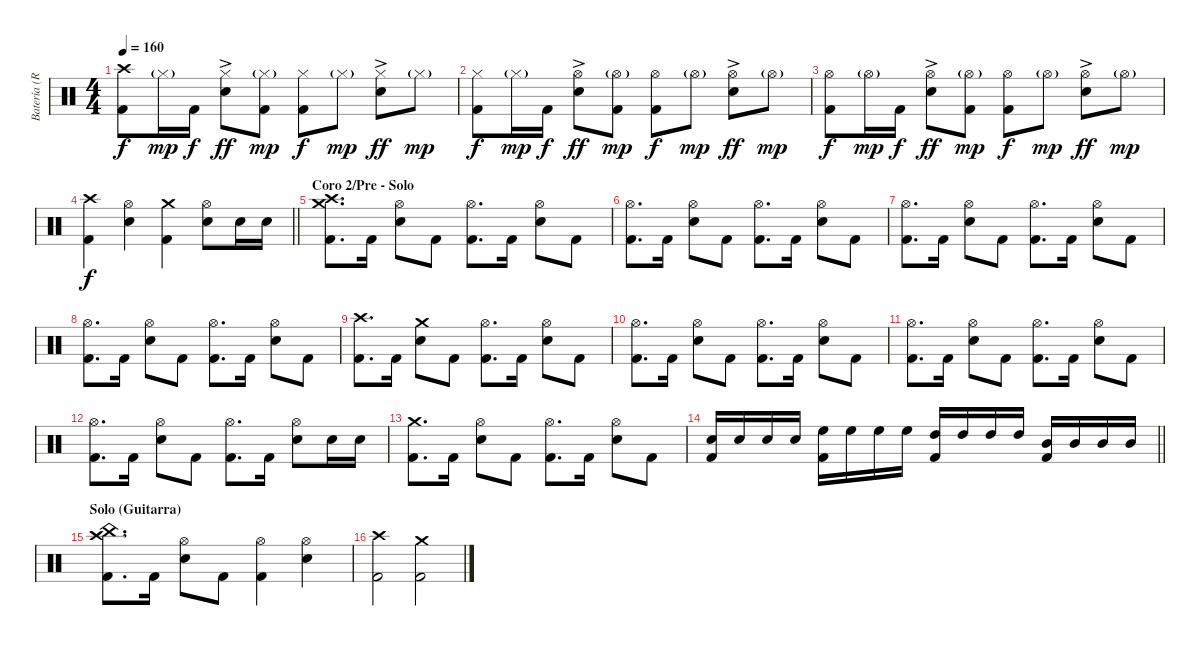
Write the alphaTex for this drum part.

\track ("Batería (Robert)" "Batería (R") {instrument percussion}
\staff {score}
\articulation defaults
\ts (4 4)
\tempo 160
\clef neutral
\ks c
("Crash high (hit)" "Kick (hit) 2").8{dy f} "Hi-Hat (closed)"{g}.16{dy mp} "Kick (hit) 2".16{dy f} ("Hi-Hat (closed)"{ac} "Electric Snare (hit)").8{dy ff} ("Hi-Hat (closed)"{g} "Kick (hit) 2").8{dy mp} ("Hi-Hat (closed)" "Kick (hit) 2").8{dy f} "Hi-Hat (closed)"{g}.8{dy mp} ("Hi-Hat (closed)"{ac} "Electric Snare (hit)").8{dy ff} "Hi-Hat (closed)"{g}.8{dy mp} |
("Hi-Hat (closed)" "Kick (hit) 2").8{dy f} "Hi-Hat (closed)"{g}.16{dy mp} "Kick (hit) 2".16{dy f} ("Electric Snare (hit)" "Hi-Hat (open)"{ac}).8{dy ff} ("Hi-Hat (open)"{g} "Kick (hit) 2").8{dy mp} ("Hi-Hat (open)" "Kick (hit) 2").8{dy f} "Hi-Hat (open)"{g}.8{dy mp} ("Hi-Hat (open)"{ac} "Electric Snare (hit)").8{dy ff} "Hi-Hat (open)"{g}.8{dy mp} |
("Hi-Hat (open)" "Kick (hit) 2").8{dy f} "Hi-Hat (open)"{g}.16{dy mp} "Kick (hit) 2".16{dy f} ("Hi-Hat (open)"{ac} "Electric Snare (hit)").8{dy ff} ("Hi-Hat (open)"{g} "Kick (hit) 2").8{dy mp} ("Hi-Hat (open)" "Kick (hit) 2").8{dy f} "Hi-Hat (open)"{g}.8{dy mp} ("Hi-Hat (open)"{ac} "Electric Snare (hit)").8{dy ff} "Hi-Hat (open)"{g}.8{dy mp} |
\barLineRight lightlight
("Kick (hit) 2" "Crash high (hit)").4{dy f} ("Electric Snare (hit)" "Hi-Hat (open)").4 ("Kick (hit) 2" "Crash medium (hit)").4 ("Hi-Hat (open)" "Electric Snare (hit)").8 "Electric Snare (hit)".16 "Electric Snare (hit)".16 |
\section ("" "Coro 2/Pre - Solo")
("Crash high (hit)" "Crash medium (hit)" "Kick (hit) 2").8{d} "Kick (hit) 2".16 ("Hi-Hat (open)" "Electric Snare (hit)").8 "Kick (hit) 2".8 ("Kick (hit) 2" "Hi-Hat (open)").8{d} "Kick (hit) 2".16 ("Hi-Hat (open)" "Electric Snare (hit)").8 "Kick (hit) 2".8 |
("Hi-Hat (open)" "Kick (hit) 2").8{d} "Kick (hit) 2".16 ("Hi-Hat (open)" "Electric Snare (hit)").8 "Kick (hit) 2".8 ("Kick (hit) 2" "Hi-Hat (open)").8{d} "Kick (hit) 2".16 ("Hi-Hat (open)" "Electric Snare (hit)").8 "Kick (hit) 2".8 |
("Hi-Hat (open)" "Kick (hit) 2").8{d} "Kick (hit) 2".16 ("Hi-Hat (open)" "Electric Snare (hit)").8 "Kick (hit) 2".8 ("Kick (hit) 2" "Hi-Hat (open)").8{d} "Kick (hit) 2".16 ("Hi-Hat (open)" "Electric Snare (hit)").8 "Kick (hit) 2".8 |
("Hi-Hat (open)" "Kick (hit) 2").8{d} "Kick (hit) 2".16 ("Hi-Hat (open)" "Electric Snare (hit)").8 "Kick (hit) 2".8 ("Kick (hit) 2" "Hi-Hat (open)").8{d} "Kick (hit) 2".16 ("Hi-Hat (open)" "Electric Snare (hit)").8 "Kick (hit) 2".8 |
("Crash high (hit)" "Kick (hit) 2").8{d} "Kick (hit) 2".16 ("Crash medium (hit)" "Electric Snare (hit)").8 "Kick (hit) 2".8 ("Kick (hit) 2" "Hi-Hat (open)").8{d} "Kick (hit) 2".16 ("Hi-Hat (open)" "Electric Snare (hit)").8 "Kick (hit) 2".8 |
("Hi-Hat (open)" "Kick (hit) 2").8{d} "Kick (hit) 2".16 ("Hi-Hat (open)" "Electric Snare (hit)").8 "Kick (hit) 2".8 ("Kick (hit) 2" "Hi-Hat (open)").8{d} "Kick (hit) 2".16 ("Hi-Hat (open)" "Electric Snare (hit)").8 "Kick (hit) 2".8 |
("Hi-Hat (open)" "Kick (hit) 2").8{d} "Kick (hit) 2".16 ("Hi-Hat (open)" "Electric Snare (hit)").8 "Kick (hit) 2".8 ("Kick (hit) 2" "Hi-Hat (open)").8{d} "Kick (hit) 2".16 ("Hi-Hat (open)" "Electric Snare (hit)").8 "Kick (hit) 2".8 |
("Hi-Hat (open)" "Kick (hit) 2").8{d} "Kick (hit) 2".16 ("Hi-Hat (open)" "Electric Snare (hit)").8 "Kick (hit) 2".8 ("Kick (hit) 2" "Hi-Hat (open)").8{d} "Kick (hit) 2".16 ("Hi-Hat (open)" "Electric Snare (hit)").8 "Electric Snare (hit)".16 "Electric Snare (hit)".16 |
("Crash medium (hit)" "Kick (hit) 2").8{d} "Kick (hit) 2".16 ("Hi-Hat (open)" "Electric Snare (hit)").8 "Kick (hit) 2".8 ("Kick (hit) 2" "Hi-Hat (open)").8{d} "Kick (hit) 2".16 ("Hi-Hat (open)" "Electric Snare (hit)").8 "Kick (hit) 2".8 |
\barLineRight lightlight
("Electric Snare (hit)" "Kick (hit) 2").16 "Electric Snare (hit)".16 "Electric Snare (hit)".16 "Electric Snare (hit)".16 ("High Floor Tom (hit)" "Kick (hit) 2").16 "High Floor Tom (hit)".16 "High Floor Tom (hit)".16 "High Floor Tom (hit)".16 ("High Tom (hit)" "Kick (hit) 2").16 "High Tom (hit)".16 "High Tom (hit)".16 "High Tom (hit)".16 ("Mid Tom (hit)" "Kick (hit) 2").16 "Mid Tom (hit)".16 "Mid Tom (hit)".16 "Mid Tom (hit)".16 |
\section ("" "Solo (Guitarra)")
("Kick (hit) 2" "China (hit)" "Crash high (hit)").8{d} "Kick (hit) 2".16 ("Hi-Hat (open)" "Electric Snare (hit)").8 "Kick (hit) 2".8 ("Kick (hit) 2" "Hi-Hat (open)").4 ("Hi-Hat (open)" "Electric Snare (hit)").4 |
("Crash high (hit)" "Kick (hit) 2").2 ("Kick (hit) 2" "Crash medium (hit)").2
